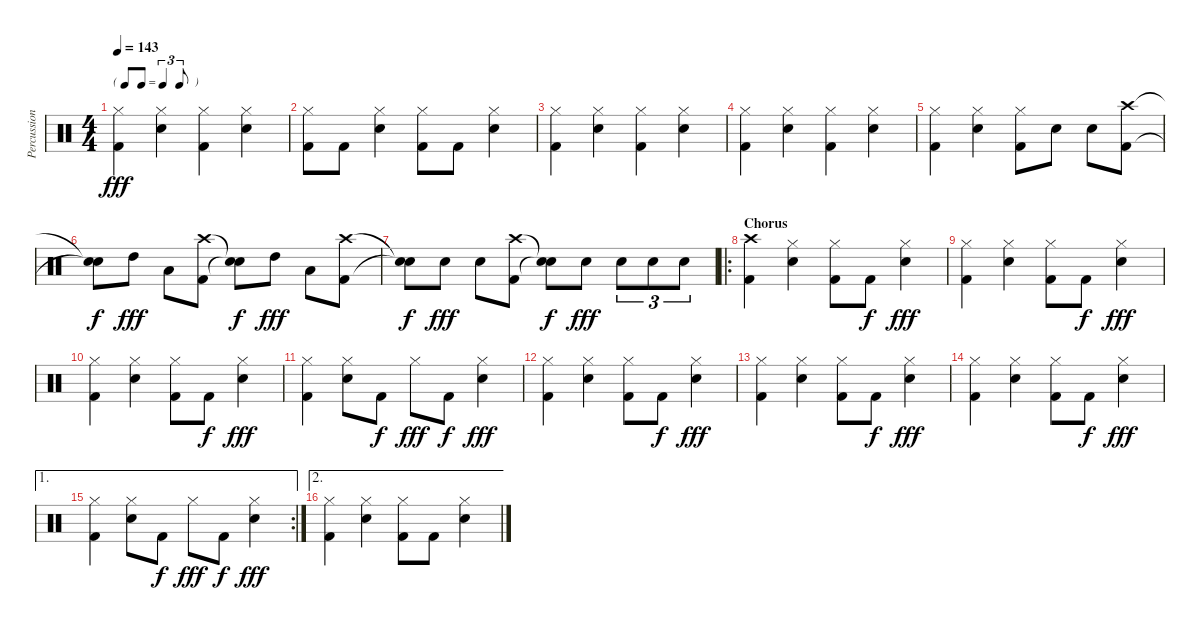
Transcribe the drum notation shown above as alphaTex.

\track ("Percussion" "Percussion") {instrument percussion}
\staff {score}
\articulation defaults
\ts (4 4)
\tf triplet8th
\tempo 143
\clef neutral
\ks c
("Hi-Hat (closed)" "Kick (hit) 2").4{dy fff} ("Hi-Hat (closed)" "Snare (hit) 2").4 ("Hi-Hat (closed)" "Kick (hit) 2").4 ("Hi-Hat (closed)" "Snare (hit) 2").4 |
("Hi-Hat (closed)" "Kick (hit) 2").8 "Kick (hit) 2".8 ("Hi-Hat (closed)" "Snare (hit) 2").4 ("Hi-Hat (closed)" "Kick (hit) 2").8 "Kick (hit) 2".8 ("Hi-Hat (closed)" "Snare (hit) 2").4 |
("Hi-Hat (closed)" "Kick (hit) 2").4 ("Hi-Hat (closed)" "Snare (hit) 2").4 ("Hi-Hat (closed)" "Kick (hit) 2").4 ("Hi-Hat (closed)" "Snare (hit) 2").4 |
("Hi-Hat (closed)" "Kick (hit) 2").4 ("Hi-Hat (closed)" "Snare (hit) 2").4 ("Hi-Hat (closed)" "Kick (hit) 2").4 ("Hi-Hat (closed)" "Snare (hit) 2").4 |
("Hi-Hat (closed)" "Kick (hit) 2").4 ("Hi-Hat (closed)" "Snare (hit) 2").4 ("Hi-Hat (closed)" "Kick (hit) 2").8 "Snare (hit) 2".8 "Snare (hit) 2".8 ("Crash high (hit)" "Kick (hit) 2").8 |
("Snare (hit)"{t} "Snare (hit)"{t}).8{dy f} "High Tom (hit)".8{dy fff} "Low Tom (hit)".8 ("Crash high (hit)" "Kick (hit) 2").8 ("Snare (hit)"{t} "Snare (hit)"{t}).8{dy f} "High Tom (hit)".8{dy fff} "Low Tom (hit)".8 ("Crash high (hit)" "Kick (hit) 2").8 |
("Snare (hit)"{t} "Snare (hit)"{t}).8{dy f} "Snare (hit) 2".8{dy fff} "Snare (hit) 2".8 ("Crash high (hit)" "Kick (hit) 2").8 ("Snare (hit)"{t} "Snare (hit)"{t}).8{dy f} "Snare (hit) 2".8{dy fff} "Snare (hit) 2".8{tu (3 2)} "Snare (hit) 2".8{tu (3 2)} "Snare (hit) 2".8{tu (3 2)} |
\ro
\section ("" "Chorus")
("Crash high (hit)" "Kick (hit) 2").4 ("Hi-Hat (closed)" "Snare (hit) 2").4 ("Hi-Hat (closed)" "Kick (hit) 2").8 "Kick (hit) 2".8{dy f} ("Hi-Hat (closed)" "Snare (hit) 2").4{dy fff} |
("Hi-Hat (closed)" "Kick (hit) 2").4 ("Hi-Hat (closed)" "Snare (hit) 2").4 ("Hi-Hat (closed)" "Kick (hit) 2").8 "Kick (hit) 2".8{dy f} ("Hi-Hat (closed)" "Snare (hit) 2").4{dy fff} |
("Hi-Hat (closed)" "Kick (hit) 2").4 ("Hi-Hat (closed)" "Snare (hit) 2").4 ("Hi-Hat (closed)" "Kick (hit) 2").8 "Kick (hit) 2".8{dy f} ("Hi-Hat (closed)" "Snare (hit) 2").4{dy fff} |
("Hi-Hat (closed)" "Kick (hit) 2").4 ("Hi-Hat (closed)" "Snare (hit) 2").8 "Kick (hit) 2".8{dy f} "Hi-Hat (closed)".8{dy fff} "Kick (hit) 2".8{dy f} ("Hi-Hat (closed)" "Snare (hit) 2").4{dy fff} |
("Hi-Hat (closed)" "Kick (hit) 2").4 ("Hi-Hat (closed)" "Snare (hit) 2").4 ("Hi-Hat (closed)" "Kick (hit) 2").8 "Kick (hit) 2".8{dy f} ("Hi-Hat (closed)" "Snare (hit) 2").4{dy fff} |
("Hi-Hat (closed)" "Kick (hit) 2").4 ("Hi-Hat (closed)" "Snare (hit) 2").4 ("Hi-Hat (closed)" "Kick (hit) 2").8 "Kick (hit) 2".8{dy f} ("Hi-Hat (closed)" "Snare (hit) 2").4{dy fff} |
("Hi-Hat (closed)" "Kick (hit) 2").4 ("Hi-Hat (closed)" "Snare (hit) 2").4 ("Hi-Hat (closed)" "Kick (hit) 2").8 "Kick (hit) 2".8{dy f} ("Hi-Hat (closed)" "Snare (hit) 2").4{dy fff} |
\ae 1
\rc 2
("Hi-Hat (closed)" "Kick (hit) 2").4 ("Hi-Hat (closed)" "Snare (hit) 2").8 "Kick (hit) 2".8{dy f} "Hi-Hat (closed)".8{dy fff} "Kick (hit) 2".8{dy f} ("Hi-Hat (closed)" "Snare (hit) 2").4{dy fff} |
\ae 2
("Hi-Hat (closed)" "Kick (hit) 2").4 ("Hi-Hat (closed)" "Snare (hit) 2").4 ("Hi-Hat (closed)" "Kick (hit) 2").8 "Kick (hit) 2".8 ("Hi-Hat (closed)" "Snare (hit) 2").4
